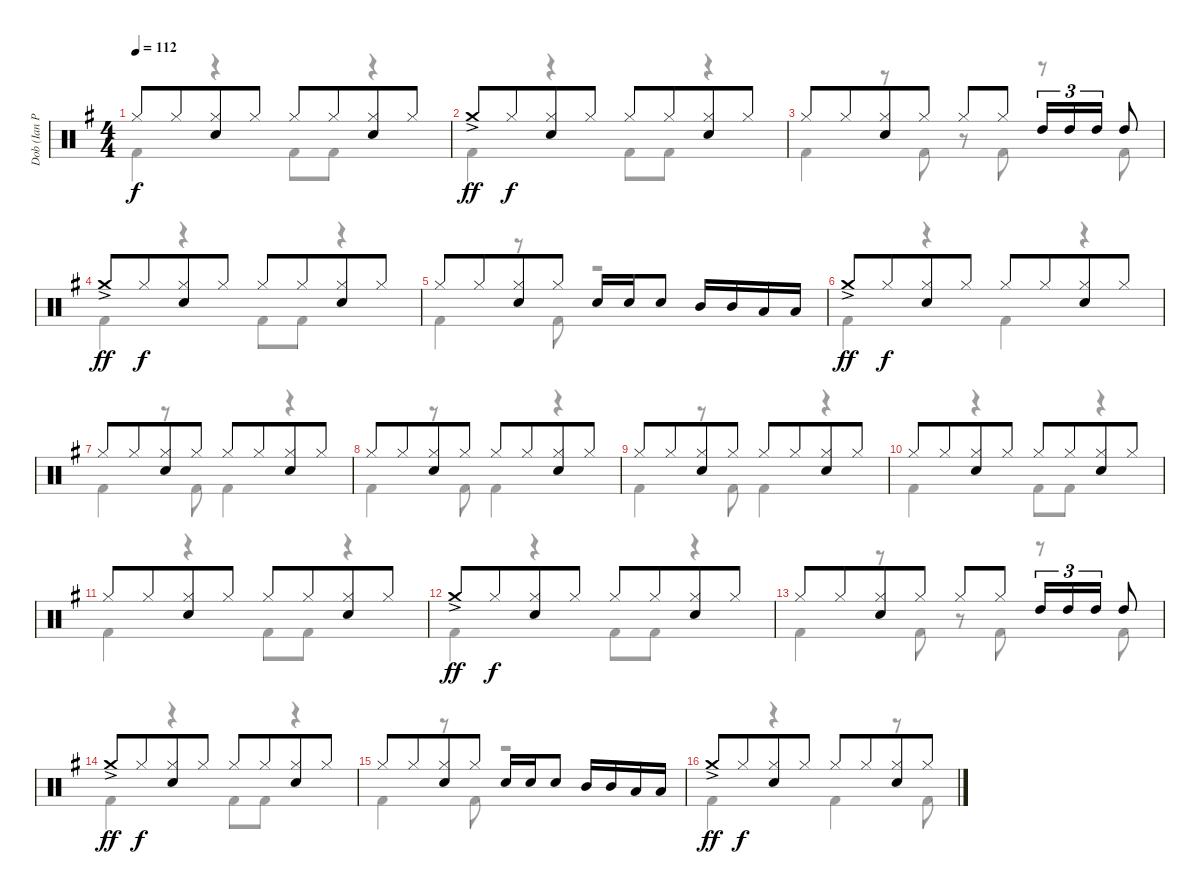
\track ("Dob (Ian Paice)" "Dob (Ian P") {instrument percussion}
\staff {score}
\articulation defaults
\voice
\ts (4 4)
\tempo 112
\clef neutral
\ks g "Hi-Hat (closed)".8{dy f} "Hi-Hat (closed)".8{beam merge}
("Hi-Hat (closed)" "Electric Snare (hit)").8 "Hi-Hat (closed)".8 "Hi-Hat (closed)".8 "Hi-Hat (closed)".8{beam merge} ("Hi-Hat (closed)" "Electric Snare (hit)").8 "Hi-Hat (closed)".8 |
"Crash medium (hit)"{ac}.8{dy ff} "Hi-Hat (closed)".8{dy f beam merge} ("Hi-Hat (closed)" "Electric Snare (hit)").8 "Hi-Hat (closed)".8 "Hi-Hat (closed)".8 "Hi-Hat (closed)".8{beam merge} ("Hi-Hat (closed)" "Electric Snare (hit)").8 "Hi-Hat (closed)".8 |
"Hi-Hat (closed)".8 "Hi-Hat (closed)".8{beam merge} ("Hi-Hat (closed)" "Electric Snare (hit)").8 "Hi-Hat (closed)".8 "Hi-Hat (closed)".8 "Hi-Hat (closed)".8 "High Tom (hit)".16{tu (3 2)} "High Tom (hit)".16{tu (3 2)} "High Tom (hit)".16{tu (3 2)} "High Tom (hit)".8 |
"Crash medium (hit)"{ac}.8{dy ff} "Hi-Hat (closed)".8{dy f beam merge} ("Hi-Hat (closed)" "Electric Snare (hit)").8 "Hi-Hat (closed)".8 "Hi-Hat (closed)".8 "Hi-Hat (closed)".8{beam merge} ("Hi-Hat (closed)" "Electric Snare (hit)").8 "Hi-Hat (closed)".8 |
"Hi-Hat (closed)".8 "Hi-Hat (closed)".8{beam merge} ("Hi-Hat (closed)" "Electric Snare (hit)").8 "Hi-Hat (closed)".8 "Electric Snare (hit)".16 "Electric Snare (hit)".16 "Electric Snare (hit)".8 "Mid Tom (hit)".16 "Mid Tom (hit)".16 "Low Tom (hit)".16 "Low Tom (hit)".16 |
"Crash medium (hit)"{ac}.8{dy ff} "Hi-Hat (closed)".8{dy f beam merge} ("Hi-Hat (closed)" "Electric Snare (hit)").8 "Hi-Hat (closed)".8 "Hi-Hat (closed)".8 "Hi-Hat (closed)".8{beam merge} ("Hi-Hat (closed)" "Electric Snare (hit)").8 "Hi-Hat (closed)".8 |
"Hi-Hat (closed)".8 "Hi-Hat (closed)".8{beam merge} ("Hi-Hat (closed)" "Electric Snare (hit)").8 "Hi-Hat (closed)".8 "Hi-Hat (closed)".8 "Hi-Hat (closed)".8{beam merge} ("Hi-Hat (closed)" "Electric Snare (hit)").8 "Hi-Hat (closed)".8 |
"Hi-Hat (closed)".8 "Hi-Hat (closed)".8{beam merge} ("Hi-Hat (closed)" "Electric Snare (hit)").8 "Hi-Hat (closed)".8 "Hi-Hat (closed)".8 "Hi-Hat (closed)".8{beam merge} ("Hi-Hat (closed)" "Electric Snare (hit)").8 "Hi-Hat (closed)".8 |
"Hi-Hat (closed)".8 "Hi-Hat (closed)".8{beam merge} ("Hi-Hat (closed)" "Electric Snare (hit)").8 "Hi-Hat (closed)".8 "Hi-Hat (closed)".8 "Hi-Hat (closed)".8{beam merge} ("Hi-Hat (closed)" "Electric Snare (hit)").8 "Hi-Hat (closed)".8 |
"Hi-Hat (closed)".8 "Hi-Hat (closed)".8{beam merge} ("Hi-Hat (closed)" "Electric Snare (hit)").8 "Hi-Hat (closed)".8 "Hi-Hat (closed)".8 "Hi-Hat (closed)".8{beam merge} ("Hi-Hat (closed)" "Electric Snare (hit)").8 "Hi-Hat (closed)".8 |
"Hi-Hat (closed)".8 "Hi-Hat (closed)".8{beam merge} ("Hi-Hat (closed)" "Electric Snare (hit)").8 "Hi-Hat (closed)".8 "Hi-Hat (closed)".8 "Hi-Hat (closed)".8{beam merge} ("Hi-Hat (closed)" "Electric Snare (hit)").8 "Hi-Hat (closed)".8 |
"Crash medium (hit)"{ac}.8{dy ff} "Hi-Hat (closed)".8{dy f beam merge} ("Hi-Hat (closed)" "Electric Snare (hit)").8 "Hi-Hat (closed)".8 "Hi-Hat (closed)".8 "Hi-Hat (closed)".8{beam merge} ("Hi-Hat (closed)" "Electric Snare (hit)").8 "Hi-Hat (closed)".8 |
"Hi-Hat (closed)".8 "Hi-Hat (closed)".8{beam merge} ("Hi-Hat (closed)" "Electric Snare (hit)").8 "Hi-Hat (closed)".8 "Hi-Hat (closed)".8 "Hi-Hat (closed)".8 "High Tom (hit)".16{tu (3 2)} "High Tom (hit)".16{tu (3 2)} "High Tom (hit)".16{tu (3 2)} "High Tom (hit)".8 |
"Crash medium (hit)"{ac}.8{dy ff} "Hi-Hat (closed)".8{dy f beam merge} ("Hi-Hat (closed)" "Electric Snare (hit)").8 "Hi-Hat (closed)".8 "Hi-Hat (closed)".8 "Hi-Hat (closed)".8{beam merge} ("Hi-Hat (closed)" "Electric Snare (hit)").8 "Hi-Hat (closed)".8 |
"Hi-Hat (closed)".8 "Hi-Hat (closed)".8{beam merge} ("Hi-Hat (closed)" "Electric Snare (hit)").8 "Hi-Hat (closed)".8 "Electric Snare (hit)".16 "Electric Snare (hit)".16 "Electric Snare (hit)".8 "Mid Tom (hit)".16 "Mid Tom (hit)".16 "Low Tom (hit)".16 "Low Tom (hit)".16 |
"Crash medium (hit)"{ac}.8{dy ff} "Hi-Hat (closed)".8{dy f beam merge} ("Hi-Hat (closed)" "Electric Snare (hit)").8 "Hi-Hat (closed)".8 "Hi-Hat (closed)".8 "Hi-Hat (closed)".8{beam merge} ("Hi-Hat (closed)" "Electric Snare (hit)").8 "Hi-Hat (closed)".8
\voice
\clef neutral
\ottava regular
\simile none
\ks g "Kick (hit) 2".4{dy f}
r.4 "Kick (hit) 2".8 "Kick (hit) 2".8 r.4 |
"Kick (hit) 2".4 r.4 "Kick (hit) 2".8 "Kick (hit) 2".8 r.4 |
"Kick (hit) 2".4 r.8 "Kick (hit) 2".8 r.8 "Kick (hit) 2".8 r.8 "Kick (hit) 2".8 |
"Kick (hit) 2".4 r.4 "Kick (hit) 2".8 "Kick (hit) 2".8 r.4 |
"Kick (hit) 2".4 r.8 "Kick (hit) 2".8 r.2 |
"Kick (hit) 2".4 r.4 "Kick (hit) 2".4 r.4 |
"Kick (hit) 2".4 r.8 "Kick (hit) 2".8 "Kick (hit) 2".4 r.4 |
"Kick (hit) 2".4 r.8 "Kick (hit) 2".8 "Kick (hit) 2".4 r.4 |
"Kick (hit) 2".4 r.8 "Kick (hit) 2".8 "Kick (hit) 2".4 r.4 |
"Kick (hit) 2".4 r.4 "Kick (hit) 2".8 "Kick (hit) 2".8 r.4 |
"Kick (hit) 2".4 r.4 "Kick (hit) 2".8 "Kick (hit) 2".8 r.4 |
"Kick (hit) 2".4 r.4 "Kick (hit) 2".8 "Kick (hit) 2".8 r.4 |
"Kick (hit) 2".4 r.8 "Kick (hit) 2".8 r.8 "Kick (hit) 2".8 r.8 "Kick (hit) 2".8 |
"Kick (hit) 2".4 r.4 "Kick (hit) 2".8 "Kick (hit) 2".8 r.4 |
"Kick (hit) 2".4 r.8 "Kick (hit) 2".8 r.2 |
"Kick (hit) 2".4 r.4 "Kick (hit) 2".4 r.8 "Kick (hit) 2".8
